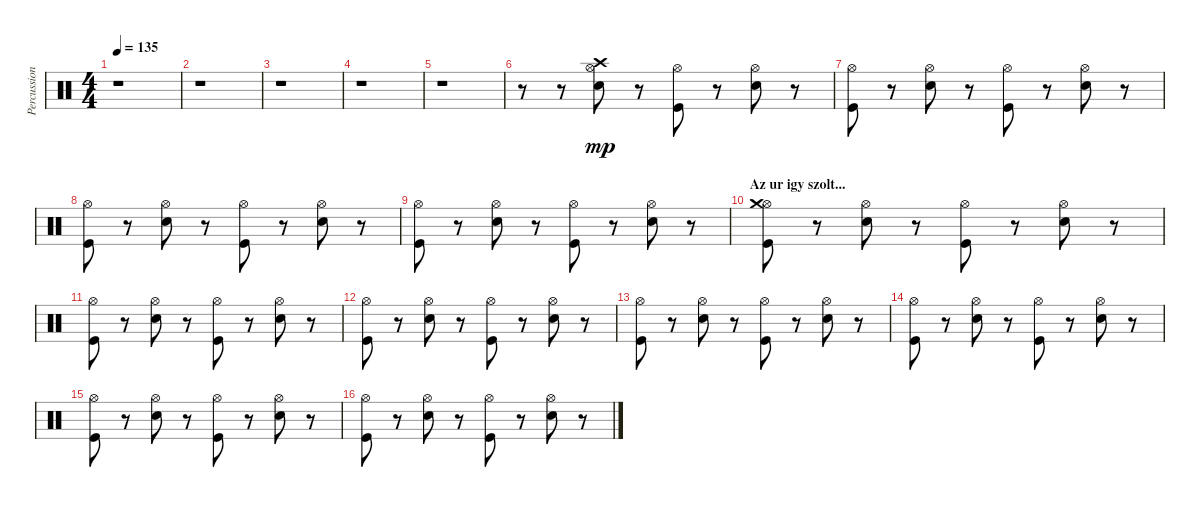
\track ("Percussion" "Percussion") {instrument percussion}
\staff {score}
\articulation defaults
\ts (4 4)
\tempo 135
\clef neutral
\ks c
r.1{dy mp} |
r.1 |
r.1 |
r.1 |
r.1 |
r.8 r.8 ("Hi-Hat (open)" "Crash high (hit)" "Snare (hit) 2").8 r.8 ("Hi-Hat (open)" "Kick (hit)").8 r.8 ("Hi-Hat (open)" "Snare (hit) 2").8 r.8 |
("Hi-Hat (open)" "Kick (hit)").8 r.8 ("Hi-Hat (open)" "Snare (hit) 2").8 r.8 ("Hi-Hat (open)" "Kick (hit)").8 r.8 ("Hi-Hat (open)" "Snare (hit) 2").8 r.8 |
("Hi-Hat (open)" "Kick (hit)").8 r.8 ("Hi-Hat (open)" "Snare (hit) 2").8 r.8 ("Hi-Hat (open)" "Kick (hit)").8 r.8 ("Hi-Hat (open)" "Snare (hit) 2").8 r.8 |
("Hi-Hat (open)" "Kick (hit)").8 r.8 ("Hi-Hat (open)" "Snare (hit) 2").8 r.8 ("Hi-Hat (open)" "Kick (hit)").8 r.8 ("Hi-Hat (open)" "Snare (hit) 2").8 r.8 |
\section ("" "Az ur igy szolt...")
("Hi-Hat (open)" "Crash medium (hit)" "Kick (hit)").8 r.8 ("Hi-Hat (open)" "Snare (hit) 2").8 r.8 ("Hi-Hat (open)" "Kick (hit)").8 r.8 ("Hi-Hat (open)" "Snare (hit) 2").8 r.8 |
("Hi-Hat (open)" "Kick (hit)").8 r.8 ("Hi-Hat (open)" "Snare (hit) 2").8 r.8 ("Hi-Hat (open)" "Kick (hit)").8 r.8 ("Hi-Hat (open)" "Snare (hit) 2").8 r.8 |
("Hi-Hat (open)" "Kick (hit)").8 r.8 ("Hi-Hat (open)" "Snare (hit) 2").8 r.8 ("Hi-Hat (open)" "Kick (hit)").8 r.8 ("Hi-Hat (open)" "Snare (hit) 2").8 r.8 |
("Hi-Hat (open)" "Kick (hit)").8 r.8 ("Hi-Hat (open)" "Snare (hit) 2").8 r.8 ("Hi-Hat (open)" "Kick (hit)").8 r.8 ("Hi-Hat (open)" "Snare (hit) 2").8 r.8 |
("Hi-Hat (open)" "Kick (hit)").8 r.8 ("Hi-Hat (open)" "Snare (hit) 2").8 r.8 ("Hi-Hat (open)" "Kick (hit)").8 r.8 ("Hi-Hat (open)" "Snare (hit) 2").8 r.8 |
("Hi-Hat (open)" "Kick (hit)").8 r.8 ("Hi-Hat (open)" "Snare (hit) 2").8 r.8 ("Hi-Hat (open)" "Kick (hit)").8 r.8 ("Hi-Hat (open)" "Snare (hit) 2").8 r.8 |
("Hi-Hat (open)" "Kick (hit)").8 r.8 ("Hi-Hat (open)" "Snare (hit) 2").8 r.8 ("Hi-Hat (open)" "Kick (hit)").8 r.8 ("Hi-Hat (open)" "Snare (hit) 2").8 r.8
